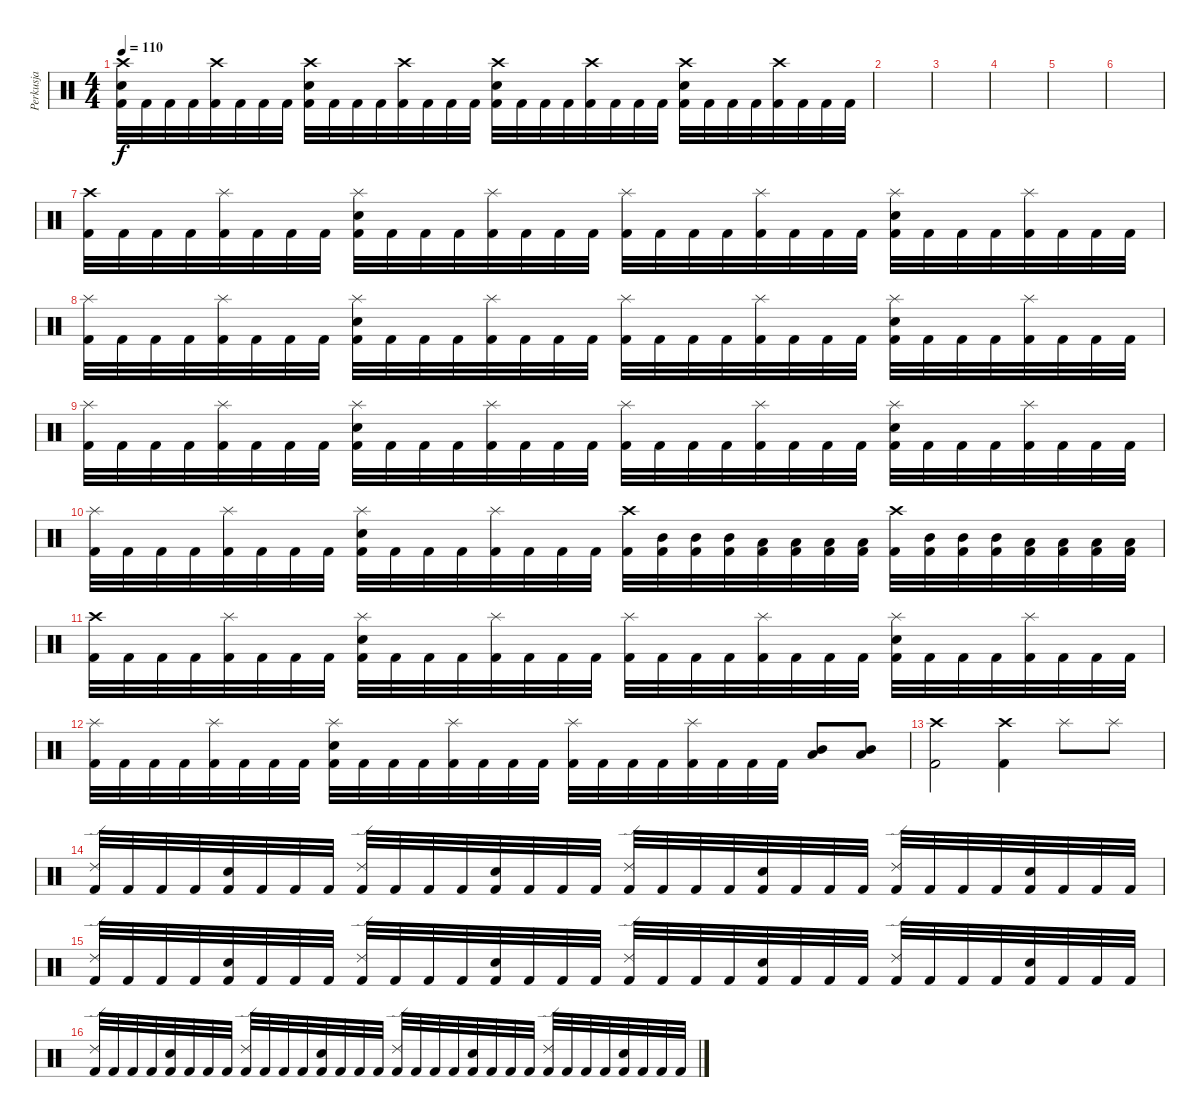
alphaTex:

\track ("Perkusja" "Perkusja") {instrument percussion}
\staff {score}
\articulation defaults
\ts (4 4)
\tempo 110
\clef neutral
\ks c
("Crash high (hit)" "Snare (hit) 2" "Kick (hit) 2").32{dy f} "Kick (hit) 2".32 "Kick (hit) 2".32 "Kick (hit) 2".32 ("Crash high (hit)" "Kick (hit) 2").32 "Kick (hit) 2".32 "Kick (hit) 2".32 "Kick (hit) 2".32 ("Crash high (hit)" "Snare (hit) 2" "Kick (hit) 2").32 "Kick (hit) 2".32 "Kick (hit) 2".32 "Kick (hit) 2".32 ("Crash high (hit)" "Kick (hit) 2").32 "Kick (hit) 2".32 "Kick (hit) 2".32 "Kick (hit) 2".32 ("Crash high (hit)" "Snare (hit) 2" "Kick (hit) 2").32 "Kick (hit) 2".32 "Kick (hit) 2".32 "Kick (hit) 2".32 ("Crash high (hit)" "Kick (hit) 2").32 "Kick (hit) 2".32 "Kick (hit) 2".32 "Kick (hit) 2".32 ("Crash high (hit)" "Snare (hit) 2" "Kick (hit) 2").32 "Kick (hit) 2".32 "Kick (hit) 2".32 "Kick (hit) 2".32 ("Crash high (hit)" "Kick (hit) 2").32 "Kick (hit) 2".32 "Kick (hit) 2".32 "Kick (hit) 2".32 |
|
|
|
|
|
("Crash high (hit)" "Kick (hit) 2").32 "Kick (hit) 2".32 "Kick (hit) 2".32 "Kick (hit) 2".32 ("Splash (hit)" "Kick (hit) 2").32 "Kick (hit) 2".32 "Kick (hit) 2".32 "Kick (hit) 2".32 ("Splash (hit)" "Snare (hit) 2" "Kick (hit) 2").32 "Kick (hit) 2".32 "Kick (hit) 2".32 "Kick (hit) 2".32 ("Splash (hit)" "Kick (hit) 2").32 "Kick (hit) 2".32 "Kick (hit) 2".32 "Kick (hit) 2".32 ("Splash (hit)" "Kick (hit) 2").32 "Kick (hit) 2".32 "Kick (hit) 2".32 "Kick (hit) 2".32 ("Splash (hit)" "Kick (hit) 2").32 "Kick (hit) 2".32 "Kick (hit) 2".32 "Kick (hit) 2".32 ("Splash (hit)" "Snare (hit) 2" "Kick (hit) 2").32 "Kick (hit) 2".32 "Kick (hit) 2".32 "Kick (hit) 2".32 ("Splash (hit)" "Kick (hit) 2").32 "Kick (hit) 2".32 "Kick (hit) 2".32 "Kick (hit) 2".32 |
("Splash (hit)" "Kick (hit) 2").32 "Kick (hit) 2".32 "Kick (hit) 2".32 "Kick (hit) 2".32 ("Splash (hit)" "Kick (hit) 2").32 "Kick (hit) 2".32 "Kick (hit) 2".32 "Kick (hit) 2".32 ("Splash (hit)" "Snare (hit) 2" "Kick (hit) 2").32 "Kick (hit) 2".32 "Kick (hit) 2".32 "Kick (hit) 2".32 ("Splash (hit)" "Kick (hit) 2").32 "Kick (hit) 2".32 "Kick (hit) 2".32 "Kick (hit) 2".32 ("Splash (hit)" "Kick (hit) 2").32 "Kick (hit) 2".32 "Kick (hit) 2".32 "Kick (hit) 2".32 ("Splash (hit)" "Kick (hit) 2").32 "Kick (hit) 2".32 "Kick (hit) 2".32 "Kick (hit) 2".32 ("Splash (hit)" "Snare (hit) 2" "Kick (hit) 2").32 "Kick (hit) 2".32 "Kick (hit) 2".32 "Kick (hit) 2".32 ("Splash (hit)" "Kick (hit) 2").32 "Kick (hit) 2".32 "Kick (hit) 2".32 "Kick (hit) 2".32 |
("Splash (hit)" "Kick (hit) 2").32 "Kick (hit) 2".32 "Kick (hit) 2".32 "Kick (hit) 2".32 ("Splash (hit)" "Kick (hit) 2").32 "Kick (hit) 2".32 "Kick (hit) 2".32 "Kick (hit) 2".32 ("Splash (hit)" "Snare (hit) 2" "Kick (hit) 2").32 "Kick (hit) 2".32 "Kick (hit) 2".32 "Kick (hit) 2".32 ("Splash (hit)" "Kick (hit) 2").32 "Kick (hit) 2".32 "Kick (hit) 2".32 "Kick (hit) 2".32 ("Splash (hit)" "Kick (hit) 2").32 "Kick (hit) 2".32 "Kick (hit) 2".32 "Kick (hit) 2".32 ("Splash (hit)" "Kick (hit) 2").32 "Kick (hit) 2".32 "Kick (hit) 2".32 "Kick (hit) 2".32 ("Splash (hit)" "Snare (hit) 2" "Kick (hit) 2").32 "Kick (hit) 2".32 "Kick (hit) 2".32 "Kick (hit) 2".32 ("Splash (hit)" "Kick (hit) 2").32 "Kick (hit) 2".32 "Kick (hit) 2".32 "Kick (hit) 2".32 |
("Splash (hit)" "Kick (hit) 2").32 "Kick (hit) 2".32 "Kick (hit) 2".32 "Kick (hit) 2".32 ("Splash (hit)" "Kick (hit) 2").32 "Kick (hit) 2".32 "Kick (hit) 2".32 "Kick (hit) 2".32 ("Splash (hit)" "Snare (hit) 2" "Kick (hit) 2").32 "Kick (hit) 2".32 "Kick (hit) 2".32 "Kick (hit) 2".32 ("Splash (hit)" "Kick (hit) 2").32 "Kick (hit) 2".32 "Kick (hit) 2".32 "Kick (hit) 2".32 ("Crash high (hit)" "Kick (hit) 2").32 ("Mid Tom (hit)" "Kick (hit) 2").32 ("Mid Tom (hit)" "Kick (hit) 2").32 ("Mid Tom (hit)" "Kick (hit) 2").32 ("Low Tom (hit)" "Kick (hit) 2").32 ("Low Tom (hit)" "Kick (hit) 2").32 ("Low Tom (hit)" "Kick (hit) 2").32 ("Low Tom (hit)" "Kick (hit) 2").32 ("Crash high (hit)" "Kick (hit) 2").32 ("Mid Tom (hit)" "Kick (hit) 2").32 ("Mid Tom (hit)" "Kick (hit) 2").32 ("Mid Tom (hit)" "Kick (hit) 2").32 ("Low Tom (hit)" "Kick (hit) 2").32 ("Low Tom (hit)" "Kick (hit) 2").32 ("Low Tom (hit)" "Kick (hit) 2").32 ("Low Tom (hit)" "Kick (hit) 2").32 |
("Crash high (hit)" "Kick (hit) 2").32 "Kick (hit) 2".32 "Kick (hit) 2".32 "Kick (hit) 2".32 ("Splash (hit)" "Kick (hit) 2").32 "Kick (hit) 2".32 "Kick (hit) 2".32 "Kick (hit) 2".32 ("Splash (hit)" "Snare (hit) 2" "Kick (hit) 2").32 "Kick (hit) 2".32 "Kick (hit) 2".32 "Kick (hit) 2".32 ("Splash (hit)" "Kick (hit) 2").32 "Kick (hit) 2".32 "Kick (hit) 2".32 "Kick (hit) 2".32 ("Splash (hit)" "Kick (hit) 2").32 "Kick (hit) 2".32 "Kick (hit) 2".32 "Kick (hit) 2".32 ("Splash (hit)" "Kick (hit) 2").32 "Kick (hit) 2".32 "Kick (hit) 2".32 "Kick (hit) 2".32 ("Splash (hit)" "Snare (hit) 2" "Kick (hit) 2").32 "Kick (hit) 2".32 "Kick (hit) 2".32 "Kick (hit) 2".32 ("Splash (hit)" "Kick (hit) 2").32 "Kick (hit) 2".32 "Kick (hit) 2".32 "Kick (hit) 2".32 |
("Splash (hit)" "Kick (hit) 2").32 "Kick (hit) 2".32 "Kick (hit) 2".32 "Kick (hit) 2".32 ("Splash (hit)" "Kick (hit) 2").32 "Kick (hit) 2".32 "Kick (hit) 2".32 "Kick (hit) 2".32 ("Splash (hit)" "Snare (hit) 2" "Kick (hit) 2").32 "Kick (hit) 2".32 "Kick (hit) 2".32 "Kick (hit) 2".32 ("Splash (hit)" "Kick (hit) 2").32 "Kick (hit) 2".32 "Kick (hit) 2".32 "Kick (hit) 2".32 ("Splash (hit)" "Kick (hit) 2").32 "Kick (hit) 2".32 "Kick (hit) 2".32 "Kick (hit) 2".32 ("Splash (hit)" "Kick (hit) 2").32 "Kick (hit) 2".32 "Kick (hit) 2".32 "Kick (hit) 2".32 ("Mid Tom (hit)" "Low Tom (hit)").8 ("Mid Tom (hit)" "Low Tom (hit)").8 |
("Crash high (hit)" "Kick (hit) 2").2 ("Crash high (hit)" "Kick (hit) 2").4 "Splash (hit)".8 "Splash (hit)".8 |
("Ride (edge) 2" "Kick (hit) 2").32 "Kick (hit) 2".32 "Kick (hit) 2".32 "Kick (hit) 2".32 ("Snare (hit) 2" "Kick (hit) 2").32 "Kick (hit) 2".32 "Kick (hit) 2".32 "Kick (hit) 2".32 ("Ride (edge) 2" "Kick (hit) 2").32 "Kick (hit) 2".32 "Kick (hit) 2".32 "Kick (hit) 2".32 ("Snare (hit) 2" "Kick (hit) 2").32 "Kick (hit) 2".32 "Kick (hit) 2".32 "Kick (hit) 2".32 ("Ride (edge) 2" "Kick (hit) 2").32 "Kick (hit) 2".32 "Kick (hit) 2".32 "Kick (hit) 2".32 ("Snare (hit) 2" "Kick (hit) 2").32 "Kick (hit) 2".32 "Kick (hit) 2".32 "Kick (hit) 2".32 ("Ride (edge) 2" "Kick (hit) 2").32 "Kick (hit) 2".32 "Kick (hit) 2".32 "Kick (hit) 2".32 ("Snare (hit) 2" "Kick (hit) 2").32 "Kick (hit) 2".32 "Kick (hit) 2".32 "Kick (hit) 2".32 |
("Ride (edge) 2" "Kick (hit) 2").32 "Kick (hit) 2".32 "Kick (hit) 2".32 "Kick (hit) 2".32 ("Snare (hit) 2" "Kick (hit) 2").32 "Kick (hit) 2".32 "Kick (hit) 2".32 "Kick (hit) 2".32 ("Ride (edge) 2" "Kick (hit) 2").32 "Kick (hit) 2".32 "Kick (hit) 2".32 "Kick (hit) 2".32 ("Snare (hit) 2" "Kick (hit) 2").32 "Kick (hit) 2".32 "Kick (hit) 2".32 "Kick (hit) 2".32 ("Ride (edge) 2" "Kick (hit) 2").32 "Kick (hit) 2".32 "Kick (hit) 2".32 "Kick (hit) 2".32 ("Snare (hit) 2" "Kick (hit) 2").32 "Kick (hit) 2".32 "Kick (hit) 2".32 "Kick (hit) 2".32 ("Ride (edge) 2" "Kick (hit) 2").32 "Kick (hit) 2".32 "Kick (hit) 2".32 "Kick (hit) 2".32 ("Snare (hit) 2" "Kick (hit) 2").32 "Kick (hit) 2".32 "Kick (hit) 2".32 "Kick (hit) 2".32 |
("Ride (edge) 2" "Kick (hit) 2").32 "Kick (hit) 2".32 "Kick (hit) 2".32 "Kick (hit) 2".32 ("Snare (hit) 2" "Kick (hit) 2").32 "Kick (hit) 2".32 "Kick (hit) 2".32 "Kick (hit) 2".32 ("Ride (edge) 2" "Kick (hit) 2").32 "Kick (hit) 2".32 "Kick (hit) 2".32 "Kick (hit) 2".32 ("Snare (hit) 2" "Kick (hit) 2").32 "Kick (hit) 2".32 "Kick (hit) 2".32 "Kick (hit) 2".32 ("Ride (edge) 2" "Kick (hit) 2").32 "Kick (hit) 2".32 "Kick (hit) 2".32 "Kick (hit) 2".32 ("Snare (hit) 2" "Kick (hit) 2").32 "Kick (hit) 2".32 "Kick (hit) 2".32 "Kick (hit) 2".32 ("Ride (edge) 2" "Kick (hit) 2").32 "Kick (hit) 2".32 "Kick (hit) 2".32 "Kick (hit) 2".32 ("Snare (hit) 2" "Kick (hit) 2").32 "Kick (hit) 2".32 "Kick (hit) 2".32 "Kick (hit) 2".32
